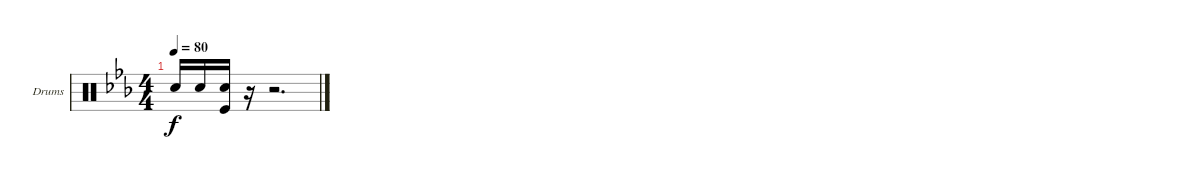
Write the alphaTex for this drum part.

\defaultSystemsLayout 4
\bracketExtendMode groupsimilarinstruments
\firstSystemTrackNameOrientation horizontal
\otherSystemsTrackNameOrientation horizontal
\track ("Mario Goossens" "Drums") {instrument percussion}
\staff {score}
\articulation defaults
\ts (4 4)
\tempo 80
\clef neutral
\ks cminor "Snare (hit) 2".16{dy f} "Snare (hit) 2".16
("Kick (hit)" "Snare (hit) 2").16 r.16 r.2{d}
